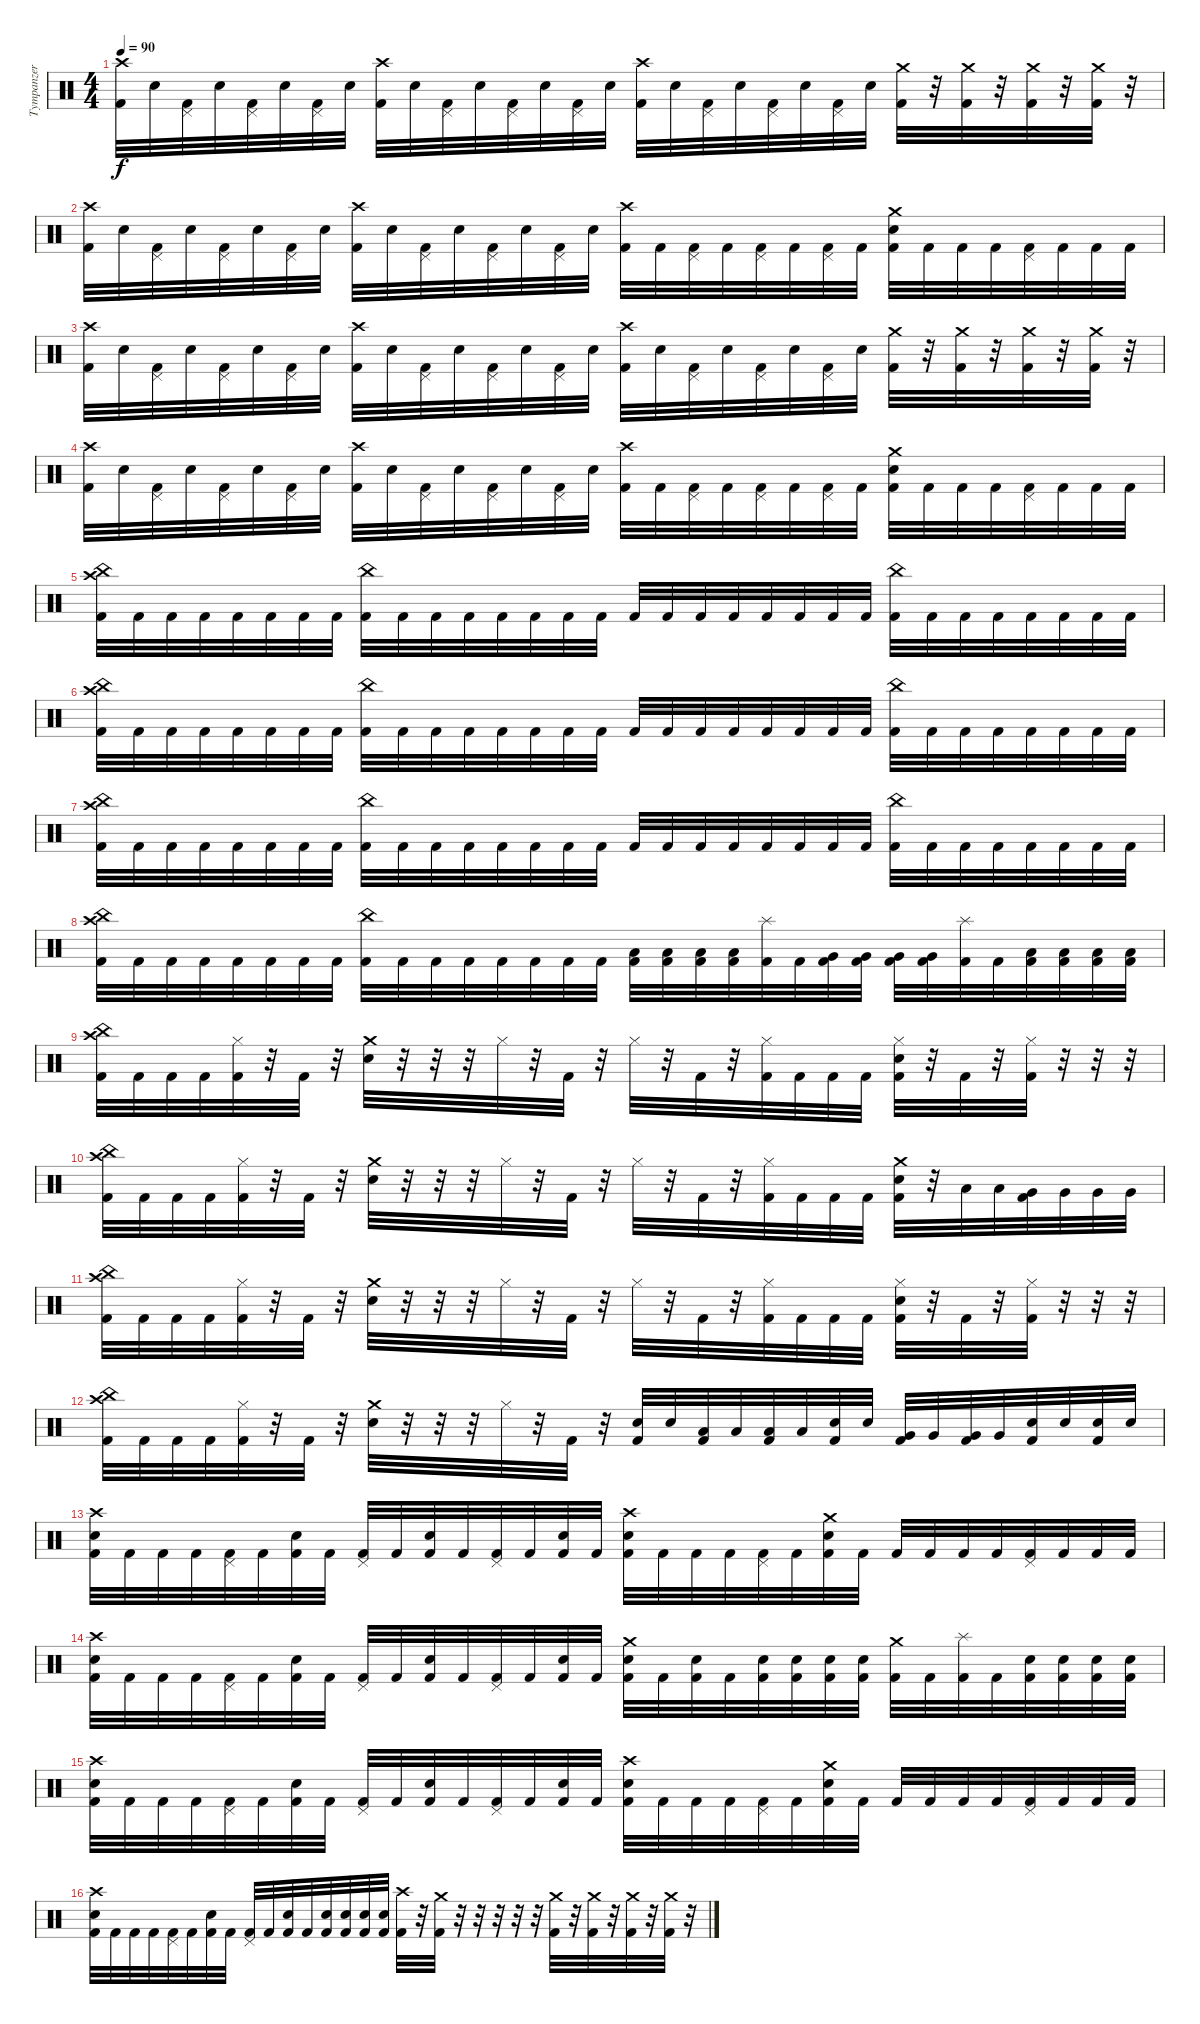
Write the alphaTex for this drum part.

\track ("Tympanzer" "Tympanzer") {instrument percussion}
\staff {score}
\articulation defaults
\ts (4 4)
\tempo 90
\clef neutral
\ks c
("Crash high (hit)" "Kick (hit) 2").32{dy f} "Electric Snare (hit)".32 ("Pedal Hi-Hat (hit)" "Kick (hit) 2").32 "Electric Snare (hit)".32 ("Pedal Hi-Hat (hit)" "Kick (hit) 2").32 "Electric Snare (hit)".32 ("Pedal Hi-Hat (hit)" "Kick (hit) 2").32 "Electric Snare (hit)".32 ("Crash high (hit)" "Kick (hit) 2").32 "Electric Snare (hit)".32 ("Pedal Hi-Hat (hit)" "Kick (hit) 2").32 "Electric Snare (hit)".32 ("Pedal Hi-Hat (hit)" "Kick (hit) 2").32 "Electric Snare (hit)".32 ("Pedal Hi-Hat (hit)" "Kick (hit) 2").32 "Electric Snare (hit)".32 ("Crash high (hit)" "Kick (hit) 2").32 "Electric Snare (hit)".32 ("Pedal Hi-Hat (hit)" "Kick (hit) 2").32 "Electric Snare (hit)".32 ("Pedal Hi-Hat (hit)" "Kick (hit) 2").32 "Electric Snare (hit)".32 ("Pedal Hi-Hat (hit)" "Kick (hit) 2").32 "Electric Snare (hit)".32 ("Crash medium (hit)" "Kick (hit) 2").32 r.32 ("Crash medium (hit)" "Kick (hit) 2").32 r.32 ("Crash medium (hit)" "Kick (hit) 2").32 r.32 ("Crash medium (hit)" "Kick (hit) 2").32 r.32 |
("Crash high (hit)" "Kick (hit) 2").32 "Electric Snare (hit)".32 ("Pedal Hi-Hat (hit)" "Kick (hit) 2").32 "Electric Snare (hit)".32 ("Pedal Hi-Hat (hit)" "Kick (hit) 2").32 "Electric Snare (hit)".32 ("Pedal Hi-Hat (hit)" "Kick (hit) 2").32 "Electric Snare (hit)".32 ("Crash high (hit)" "Kick (hit) 2").32 "Electric Snare (hit)".32 ("Pedal Hi-Hat (hit)" "Kick (hit) 2").32 "Electric Snare (hit)".32 ("Pedal Hi-Hat (hit)" "Kick (hit) 2").32 "Electric Snare (hit)".32 ("Pedal Hi-Hat (hit)" "Kick (hit) 2").32 "Electric Snare (hit)".32 ("Crash high (hit)" "Kick (hit) 2").32 "Kick (hit) 2".32 ("Pedal Hi-Hat (hit)" "Kick (hit) 2").32 "Kick (hit) 2".32 ("Pedal Hi-Hat (hit)" "Kick (hit) 2").32 "Kick (hit) 2".32 ("Pedal Hi-Hat (hit)" "Kick (hit) 2").32 "Kick (hit) 2".32 ("Crash medium (hit)" "Electric Snare (hit)" "Kick (hit) 2").32 "Kick (hit) 2".32 "Kick (hit) 2".32 "Kick (hit) 2".32 ("Pedal Hi-Hat (hit)" "Kick (hit) 2").32 "Kick (hit) 2".32 "Kick (hit) 2".32 "Kick (hit) 2".32 |
("Crash high (hit)" "Kick (hit) 2").32 "Electric Snare (hit)".32 ("Pedal Hi-Hat (hit)" "Kick (hit) 2").32 "Electric Snare (hit)".32 ("Pedal Hi-Hat (hit)" "Kick (hit) 2").32 "Electric Snare (hit)".32 ("Pedal Hi-Hat (hit)" "Kick (hit) 2").32 "Electric Snare (hit)".32 ("Crash high (hit)" "Kick (hit) 2").32 "Electric Snare (hit)".32 ("Pedal Hi-Hat (hit)" "Kick (hit) 2").32 "Electric Snare (hit)".32 ("Pedal Hi-Hat (hit)" "Kick (hit) 2").32 "Electric Snare (hit)".32 ("Pedal Hi-Hat (hit)" "Kick (hit) 2").32 "Electric Snare (hit)".32 ("Crash high (hit)" "Kick (hit) 2").32 "Electric Snare (hit)".32 ("Pedal Hi-Hat (hit)" "Kick (hit) 2").32 "Electric Snare (hit)".32 ("Pedal Hi-Hat (hit)" "Kick (hit) 2").32 "Electric Snare (hit)".32 ("Pedal Hi-Hat (hit)" "Kick (hit) 2").32 "Electric Snare (hit)".32 ("Crash medium (hit)" "Kick (hit) 2").32 r.32 ("Crash medium (hit)" "Kick (hit) 2").32 r.32 ("Crash medium (hit)" "Kick (hit) 2").32 r.32 ("Crash medium (hit)" "Kick (hit) 2").32 r.32 |
("Crash high (hit)" "Kick (hit) 2").32 "Electric Snare (hit)".32 ("Pedal Hi-Hat (hit)" "Kick (hit) 2").32 "Electric Snare (hit)".32 ("Pedal Hi-Hat (hit)" "Kick (hit) 2").32 "Electric Snare (hit)".32 ("Pedal Hi-Hat (hit)" "Kick (hit) 2").32 "Electric Snare (hit)".32 ("Crash high (hit)" "Kick (hit) 2").32 "Electric Snare (hit)".32 ("Pedal Hi-Hat (hit)" "Kick (hit) 2").32 "Electric Snare (hit)".32 ("Pedal Hi-Hat (hit)" "Kick (hit) 2").32 "Electric Snare (hit)".32 ("Pedal Hi-Hat (hit)" "Kick (hit) 2").32 "Electric Snare (hit)".32 ("Crash high (hit)" "Kick (hit) 2").32 "Kick (hit) 2".32 ("Pedal Hi-Hat (hit)" "Kick (hit) 2").32 "Kick (hit) 2".32 ("Pedal Hi-Hat (hit)" "Kick (hit) 2").32 "Kick (hit) 2".32 ("Pedal Hi-Hat (hit)" "Kick (hit) 2").32 "Kick (hit) 2".32 ("Crash medium (hit)" "Electric Snare (hit)" "Kick (hit) 2").32 "Kick (hit) 2".32 "Kick (hit) 2".32 "Kick (hit) 2".32 ("Pedal Hi-Hat (hit)" "Kick (hit) 2").32 "Kick (hit) 2".32 "Kick (hit) 2".32 "Kick (hit) 2".32 |
("China (hit)" "Crash high (hit)" "Kick (hit) 2").32 "Kick (hit) 2".32 "Kick (hit) 2".32 "Kick (hit) 2".32 "Kick (hit) 2".32 "Kick (hit) 2".32 "Kick (hit) 2".32 "Kick (hit) 2".32 ("China (hit)" "Kick (hit) 2").32 "Kick (hit) 2".32 "Kick (hit) 2".32 "Kick (hit) 2".32 "Kick (hit) 2".32 "Kick (hit) 2".32 "Kick (hit) 2".32 "Kick (hit) 2".32 "Kick (hit) 2".32 "Kick (hit) 2".32 "Kick (hit) 2".32 "Kick (hit) 2".32 "Kick (hit) 2".32 "Kick (hit) 2".32 "Kick (hit) 2".32 "Kick (hit) 2".32 ("China (hit)" "Kick (hit) 2").32 "Kick (hit) 2".32 "Kick (hit) 2".32 "Kick (hit) 2".32 "Kick (hit) 2".32 "Kick (hit) 2".32 "Kick (hit) 2".32 "Kick (hit) 2".32 |
("China (hit)" "Crash high (hit)" "Kick (hit) 2").32 "Kick (hit) 2".32 "Kick (hit) 2".32 "Kick (hit) 2".32 "Kick (hit) 2".32 "Kick (hit) 2".32 "Kick (hit) 2".32 "Kick (hit) 2".32 ("China (hit)" "Kick (hit) 2").32 "Kick (hit) 2".32 "Kick (hit) 2".32 "Kick (hit) 2".32 "Kick (hit) 2".32 "Kick (hit) 2".32 "Kick (hit) 2".32 "Kick (hit) 2".32 "Kick (hit) 2".32 "Kick (hit) 2".32 "Kick (hit) 2".32 "Kick (hit) 2".32 "Kick (hit) 2".32 "Kick (hit) 2".32 "Kick (hit) 2".32 "Kick (hit) 2".32 ("China (hit)" "Kick (hit) 2").32 "Kick (hit) 2".32 "Kick (hit) 2".32 "Kick (hit) 2".32 "Kick (hit) 2".32 "Kick (hit) 2".32 "Kick (hit) 2".32 "Kick (hit) 2".32 |
("China (hit)" "Crash high (hit)" "Kick (hit) 2").32 "Kick (hit) 2".32 "Kick (hit) 2".32 "Kick (hit) 2".32 "Kick (hit) 2".32 "Kick (hit) 2".32 "Kick (hit) 2".32 "Kick (hit) 2".32 ("China (hit)" "Kick (hit) 2").32 "Kick (hit) 2".32 "Kick (hit) 2".32 "Kick (hit) 2".32 "Kick (hit) 2".32 "Kick (hit) 2".32 "Kick (hit) 2".32 "Kick (hit) 2".32 "Kick (hit) 2".32 "Kick (hit) 2".32 "Kick (hit) 2".32 "Kick (hit) 2".32 "Kick (hit) 2".32 "Kick (hit) 2".32 "Kick (hit) 2".32 "Kick (hit) 2".32 ("China (hit)" "Kick (hit) 2").32 "Kick (hit) 2".32 "Kick (hit) 2".32 "Kick (hit) 2".32 "Kick (hit) 2".32 "Kick (hit) 2".32 "Kick (hit) 2".32 "Kick (hit) 2".32 |
("China (hit)" "Crash high (hit)" "Kick (hit) 2").32 "Kick (hit) 2".32 "Kick (hit) 2".32 "Kick (hit) 2".32 "Kick (hit) 2".32 "Kick (hit) 2".32 "Kick (hit) 2".32 "Kick (hit) 2".32 ("China (hit)" "Kick (hit) 2").32 "Kick (hit) 2".32 "Kick (hit) 2".32 "Kick (hit) 2".32 "Kick (hit) 2".32 "Kick (hit) 2".32 "Kick (hit) 2".32 "Kick (hit) 2".32 ("Low Tom (hit)" "Kick (hit) 2").32 ("Low Tom (hit)" "Kick (hit) 2").32 ("Low Tom (hit)" "Kick (hit) 2").32 ("Low Tom (hit)" "Kick (hit) 2").32 ("Splash (hit)" "Kick (hit) 2").32 "Kick (hit) 2".32 ("Very Low Tom (hit)" "Kick (hit) 2").32 ("Very Low Tom (hit)" "Kick (hit) 2").32 ("Very Low Tom (hit)" "Kick (hit) 2").32 ("Very Low Tom (hit)" "Kick (hit) 2").32 ("Splash (hit)" "Kick (hit) 2").32 "Kick (hit) 2".32 ("Low Floor Tom (hit)" "Kick (hit) 2").32 ("Low Floor Tom (hit)" "Kick (hit) 2").32 ("Low Floor Tom (hit)" "Kick (hit) 2").32 ("Low Floor Tom (hit)" "Kick (hit) 2").32 |
("China (hit)" "Crash high (hit)" "Kick (hit) 2").32 "Kick (hit) 2".32 "Kick (hit) 2".32 "Kick (hit) 2".32 ("Hi-Hat (closed)" "Kick (hit) 2").32 r.32 "Kick (hit) 2".32 r.32 ("Crash medium (hit)" "Electric Snare (hit)").32 r.32 r.32 r.32 "Hi-Hat (closed)".32 r.32 "Kick (hit) 2".32 r.32 "Hi-Hat (closed)".32 r.32 "Kick (hit) 2".32 r.32 ("Hi-Hat (closed)" "Kick (hit) 2").32 "Kick (hit) 2".32 "Kick (hit) 2".32 "Kick (hit) 2".32 ("Hi-Hat (closed)" "Electric Snare (hit)" "Kick (hit) 2").32 r.32 "Kick (hit) 2".32 r.32 ("Hi-Hat (closed)" "Kick (hit) 2").32 r.32 r.32 r.32 |
("China (hit)" "Crash high (hit)" "Kick (hit) 2").32 "Kick (hit) 2".32 "Kick (hit) 2".32 "Kick (hit) 2".32 ("Hi-Hat (closed)" "Kick (hit) 2").32 r.32 "Kick (hit) 2".32 r.32 ("Crash medium (hit)" "Electric Snare (hit)").32 r.32 r.32 r.32 "Hi-Hat (closed)".32 r.32 "Kick (hit) 2".32 r.32 "Hi-Hat (closed)".32 r.32 "Kick (hit) 2".32 r.32 ("Hi-Hat (closed)" "Kick (hit) 2").32 "Kick (hit) 2".32 "Kick (hit) 2".32 "Kick (hit) 2".32 ("Crash medium (hit)" "Electric Snare (hit)" "Kick (hit) 2").32 r.32 "Low Tom (hit)".32 "Low Tom (hit)".32 ("Very Low Tom (hit)" "Kick (hit) 2").32 "Very Low Tom (hit)".32 "Very Low Tom (hit)".32 "Very Low Tom (hit)".32 |
("China (hit)" "Crash high (hit)" "Kick (hit) 2").32 "Kick (hit) 2".32 "Kick (hit) 2".32 "Kick (hit) 2".32 ("Hi-Hat (closed)" "Kick (hit) 2").32 r.32 "Kick (hit) 2".32 r.32 ("Crash medium (hit)" "Electric Snare (hit)").32 r.32 r.32 r.32 "Hi-Hat (closed)".32 r.32 "Kick (hit) 2".32 r.32 "Hi-Hat (closed)".32 r.32 "Kick (hit) 2".32 r.32 ("Hi-Hat (closed)" "Kick (hit) 2").32 "Kick (hit) 2".32 "Kick (hit) 2".32 "Kick (hit) 2".32 ("Hi-Hat (closed)" "Electric Snare (hit)" "Kick (hit) 2").32 r.32 "Kick (hit) 2".32 r.32 ("Hi-Hat (closed)" "Kick (hit) 2").32 r.32 r.32 r.32 |
("China (hit)" "Crash high (hit)" "Kick (hit) 2").32 "Kick (hit) 2".32 "Kick (hit) 2".32 "Kick (hit) 2".32 ("Hi-Hat (closed)" "Kick (hit) 2").32 r.32 "Kick (hit) 2".32 r.32 ("Crash medium (hit)" "Electric Snare (hit)").32 r.32 r.32 r.32 "Hi-Hat (closed)".32 r.32 "Kick (hit) 2".32 r.32 ("Electric Snare (hit)" "Kick (hit) 2").32 "Electric Snare (hit)".32 ("Low Tom (hit)" "Kick (hit) 2").32 "Low Tom (hit)".32 ("Low Tom (hit)" "Kick (hit) 2").32 "Low Tom (hit)".32 ("Electric Snare (hit)" "Kick (hit) 2").32 "Electric Snare (hit)".32 ("Very Low Tom (hit)" "Kick (hit) 2").32 "Very Low Tom (hit)".32 ("Very Low Tom (hit)" "Kick (hit) 2").32 "Very Low Tom (hit)".32 ("Electric Snare (hit)" "Kick (hit) 2").32 "Electric Snare (hit)".32 ("Electric Snare (hit)" "Kick (hit) 2").32 "Electric Snare (hit)".32 |
("Crash high (hit)" "Electric Snare (hit)" "Kick (hit) 2").32 "Kick (hit) 2".32 "Kick (hit) 2".32 "Kick (hit) 2".32 ("Pedal Hi-Hat (hit)" "Kick (hit) 2").32 "Kick (hit) 2".32 ("Electric Snare (hit)" "Kick (hit) 2").32 "Kick (hit) 2".32 ("Pedal Hi-Hat (hit)" "Kick (hit) 2").32 "Kick (hit) 2".32 ("Electric Snare (hit)" "Kick (hit) 2").32 "Kick (hit) 2".32 ("Pedal Hi-Hat (hit)" "Kick (hit) 2").32 "Kick (hit) 2".32 ("Electric Snare (hit)" "Kick (hit) 2").32 "Kick (hit) 2".32 ("Crash high (hit)" "Electric Snare (hit)" "Kick (hit) 2").32 "Kick (hit) 2".32 "Kick (hit) 2".32 "Kick (hit) 2".32 ("Pedal Hi-Hat (hit)" "Kick (hit) 2").32 "Kick (hit) 2".32 ("Crash medium (hit)" "Electric Snare (hit)" "Kick (hit) 2").32 "Kick (hit) 2".32 "Kick (hit) 2".32 "Kick (hit) 2".32 "Kick (hit) 2".32 "Kick (hit) 2".32 ("Pedal Hi-Hat (hit)" "Kick (hit) 2").32 "Kick (hit) 2".32 "Kick (hit) 2".32 "Kick (hit) 2".32 |
("Crash high (hit)" "Electric Snare (hit)" "Kick (hit) 2").32 "Kick (hit) 2".32 "Kick (hit) 2".32 "Kick (hit) 2".32 ("Pedal Hi-Hat (hit)" "Kick (hit) 2").32 "Kick (hit) 2".32 ("Electric Snare (hit)" "Kick (hit) 2").32 "Kick (hit) 2".32 ("Pedal Hi-Hat (hit)" "Kick (hit) 2").32 "Kick (hit) 2".32 ("Electric Snare (hit)" "Kick (hit) 2").32 "Kick (hit) 2".32 ("Pedal Hi-Hat (hit)" "Kick (hit) 2").32 "Kick (hit) 2".32 ("Electric Snare (hit)" "Kick (hit) 2").32 "Kick (hit) 2".32 ("Crash medium (hit)" "Electric Snare (hit)" "Kick (hit) 2").32 "Kick (hit) 2".32 ("Electric Snare (hit)" "Kick (hit) 2").32 "Kick (hit) 2".32 ("Electric Snare (hit)" "Kick (hit) 2").32 ("Electric Snare (hit)" "Kick (hit) 2").32 ("Electric Snare (hit)" "Kick (hit) 2").32 ("Electric Snare (hit)" "Kick (hit) 2").32 ("Crash medium (hit)" "Kick (hit) 2").32 "Kick (hit) 2".32 ("Splash (hit)" "Kick (hit) 2").32 "Kick (hit) 2".32 ("Electric Snare (hit)" "Kick (hit) 2").32 ("Electric Snare (hit)" "Kick (hit) 2").32 ("Electric Snare (hit)" "Kick (hit) 2").32 ("Electric Snare (hit)" "Kick (hit) 2").32 |
("Crash high (hit)" "Electric Snare (hit)" "Kick (hit) 2").32 "Kick (hit) 2".32 "Kick (hit) 2".32 "Kick (hit) 2".32 ("Pedal Hi-Hat (hit)" "Kick (hit) 2").32 "Kick (hit) 2".32 ("Electric Snare (hit)" "Kick (hit) 2").32 "Kick (hit) 2".32 ("Pedal Hi-Hat (hit)" "Kick (hit) 2").32 "Kick (hit) 2".32 ("Electric Snare (hit)" "Kick (hit) 2").32 "Kick (hit) 2".32 ("Pedal Hi-Hat (hit)" "Kick (hit) 2").32 "Kick (hit) 2".32 ("Electric Snare (hit)" "Kick (hit) 2").32 "Kick (hit) 2".32 ("Crash high (hit)" "Electric Snare (hit)" "Kick (hit) 2").32 "Kick (hit) 2".32 "Kick (hit) 2".32 "Kick (hit) 2".32 ("Pedal Hi-Hat (hit)" "Kick (hit) 2").32 "Kick (hit) 2".32 ("Crash medium (hit)" "Electric Snare (hit)" "Kick (hit) 2").32 "Kick (hit) 2".32 "Kick (hit) 2".32 "Kick (hit) 2".32 "Kick (hit) 2".32 "Kick (hit) 2".32 ("Pedal Hi-Hat (hit)" "Kick (hit) 2").32 "Kick (hit) 2".32 "Kick (hit) 2".32 "Kick (hit) 2".32 |
("Crash high (hit)" "Electric Snare (hit)" "Kick (hit) 2").32 "Kick (hit) 2".32 "Kick (hit) 2".32 "Kick (hit) 2".32 ("Pedal Hi-Hat (hit)" "Kick (hit) 2").32 "Kick (hit) 2".32 ("Electric Snare (hit)" "Kick (hit) 2").32 "Kick (hit) 2".32 ("Pedal Hi-Hat (hit)" "Kick (hit) 2").32 "Kick (hit) 2".32 ("Electric Snare (hit)" "Kick (hit) 2").32 "Kick (hit) 2".32 ("Electric Snare (hit)" "Kick (hit) 2").32 ("Electric Snare (hit)" "Kick (hit) 2").32 ("Electric Snare (hit)" "Kick (hit) 2").32 ("Electric Snare (hit)" "Kick (hit) 2").32 ("Crash high (hit)" "Kick (hit) 2").32 r.32 ("Crash medium (hit)" "Kick (hit) 2").32 r.32 r.32 r.32 r.32 r.32 ("Crash medium (hit)" "Kick (hit) 2").32 r.32 ("Crash medium (hit)" "Kick (hit) 2").32 r.32 ("Crash medium (hit)" "Kick (hit) 2").32 r.32 ("Crash medium (hit)" "Kick (hit) 2").32 r.32
